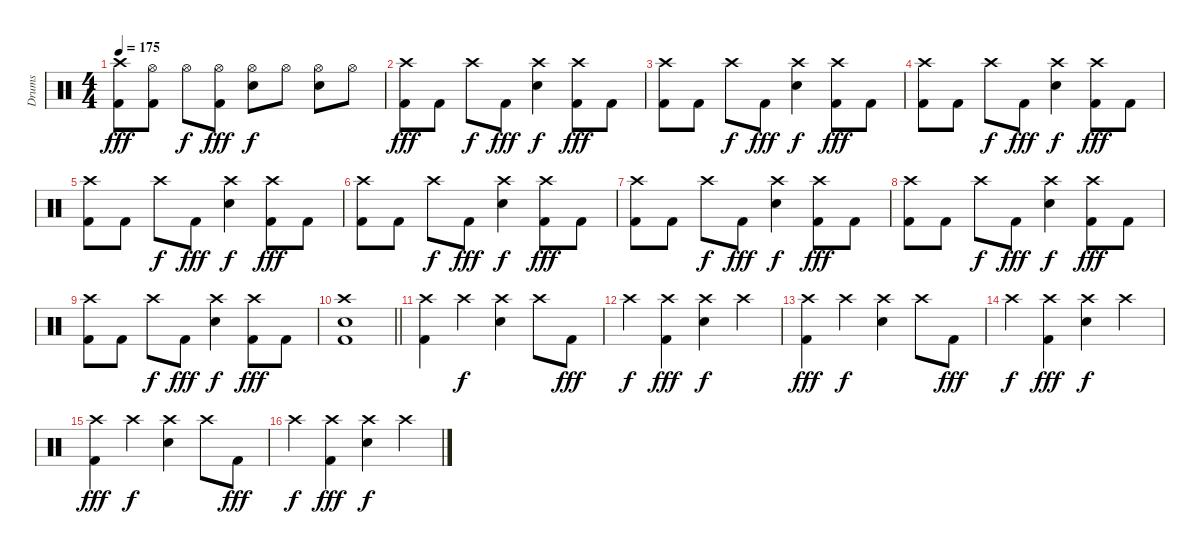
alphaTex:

\track ("Drums" "Drums") {instrument percussion}
\staff {score}
\articulation defaults
\ts (4 4)
\tempo 175
\clef neutral
\ks c
("Crash high (hit)" "Kick (hit) 2").8{dy fff} ("Hi-Hat (open)" "Kick (hit) 2").8 "Hi-Hat (open)".8{dy f} ("Hi-Hat (open)" "Kick (hit) 2").8{dy fff} ("Hi-Hat (open)" "Electric Snare (hit)").8{dy f} "Hi-Hat (open)".8 ("Hi-Hat (open)" "Electric Snare (hit)").8 "Hi-Hat (open)".8 |
("Crash high (hit)" "Kick (hit) 2").8{dy fff} "Kick (hit) 2".8 "Crash high (hit)".8{dy f} "Kick (hit) 2".8{dy fff} ("Crash high (hit)" "Electric Snare (hit)").4{dy f} ("Crash high (hit)" "Kick (hit) 2").8{dy fff} "Kick (hit) 2".8 |
("Crash high (hit)" "Kick (hit) 2").8 "Kick (hit) 2".8 "Crash high (hit)".8{dy f} "Kick (hit) 2".8{dy fff} ("Crash high (hit)" "Electric Snare (hit)").4{dy f} ("Crash high (hit)" "Kick (hit) 2").8{dy fff} "Kick (hit) 2".8 |
("Crash high (hit)" "Kick (hit) 2").8 "Kick (hit) 2".8 "Crash high (hit)".8{dy f} "Kick (hit) 2".8{dy fff} ("Crash high (hit)" "Electric Snare (hit)").4{dy f} ("Crash high (hit)" "Kick (hit) 2").8{dy fff} "Kick (hit) 2".8 |
("Crash high (hit)" "Kick (hit) 2").8 "Kick (hit) 2".8 "Crash high (hit)".8{dy f} "Kick (hit) 2".8{dy fff} ("Crash high (hit)" "Electric Snare (hit)").4{dy f} ("Crash high (hit)" "Kick (hit) 2").8{dy fff} "Kick (hit) 2".8 |
("Crash high (hit)" "Kick (hit) 2").8 "Kick (hit) 2".8 "Crash high (hit)".8{dy f} "Kick (hit) 2".8{dy fff} ("Crash high (hit)" "Electric Snare (hit)").4{dy f} ("Crash high (hit)" "Kick (hit) 2").8{dy fff} "Kick (hit) 2".8 |
("Crash high (hit)" "Kick (hit) 2").8 "Kick (hit) 2".8 "Crash high (hit)".8{dy f} "Kick (hit) 2".8{dy fff} ("Crash high (hit)" "Electric Snare (hit)").4{dy f} ("Crash high (hit)" "Kick (hit) 2").8{dy fff} "Kick (hit) 2".8 |
("Crash high (hit)" "Kick (hit) 2").8 "Kick (hit) 2".8 "Crash high (hit)".8{dy f} "Kick (hit) 2".8{dy fff} ("Crash high (hit)" "Electric Snare (hit)").4{dy f} ("Crash high (hit)" "Kick (hit) 2").8{dy fff} "Kick (hit) 2".8 |
("Crash high (hit)" "Kick (hit) 2").8 "Kick (hit) 2".8 "Crash high (hit)".8{dy f} "Kick (hit) 2".8{dy fff} ("Crash high (hit)" "Electric Snare (hit)").4{dy f} ("Crash high (hit)" "Kick (hit) 2").8{dy fff} "Kick (hit) 2".8 |
\barLineRight lightlight
("Crash high (hit)" "Electric Snare (hit)" "Kick (hit) 2").1 |
("Crash high (hit)" "Kick (hit) 2").4 "Crash high (hit)".4{dy f} ("Crash high (hit)" "Electric Snare (hit)").4 "Crash high (hit)".8 "Kick (hit) 2".8{dy fff} |
"Crash high (hit)".4{dy f} ("Crash high (hit)" "Kick (hit) 2").4{dy fff} ("Crash high (hit)" "Electric Snare (hit)").4{dy f} "Crash high (hit)".4 |
("Crash high (hit)" "Kick (hit) 2").4{dy fff} "Crash high (hit)".4{dy f} ("Crash high (hit)" "Electric Snare (hit)").4 "Crash high (hit)".8 "Kick (hit) 2".8{dy fff} |
"Crash high (hit)".4{dy f} ("Crash high (hit)" "Kick (hit) 2").4{dy fff} ("Crash high (hit)" "Electric Snare (hit)").4{dy f} "Crash high (hit)".4 |
("Crash high (hit)" "Kick (hit) 2").4{dy fff} "Crash high (hit)".4{dy f} ("Crash high (hit)" "Electric Snare (hit)").4 "Crash high (hit)".8 "Kick (hit) 2".8{dy fff} |
"Crash high (hit)".4{dy f} ("Crash high (hit)" "Kick (hit) 2").4{dy fff} ("Crash high (hit)" "Electric Snare (hit)").4{dy f} "Crash high (hit)".4
